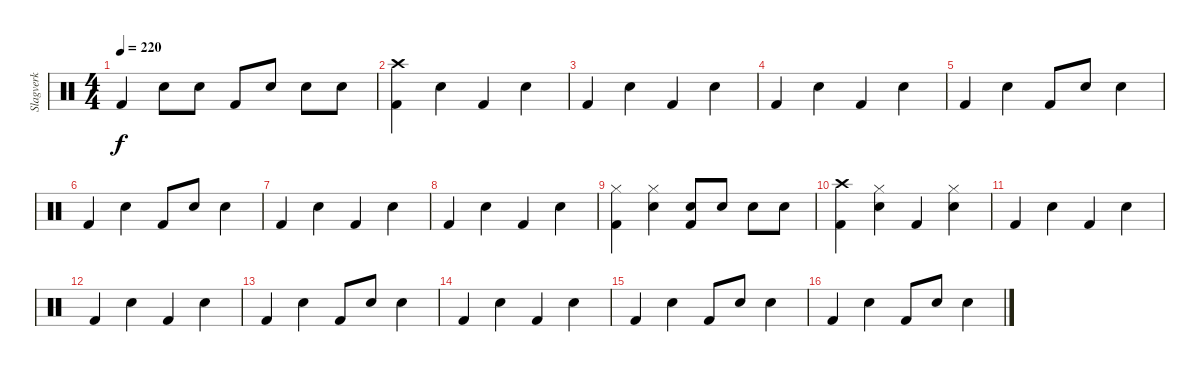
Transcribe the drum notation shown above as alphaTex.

\track ("Slagverk" "Slagverk") {instrument percussion}
\staff {score}
\articulation defaults
\ts (4 4)
\tempo 220
\clef neutral
\ks c "Kick (hit) 2".4{dy f} "Snare (hit) 2".8 "Snare (hit) 2".8 "Kick (hit) 2".8 "Snare (hit) 2".8 "Snare (hit) 2".8 "Snare (hit) 2".8
|
("Crash high (hit)" "Kick (hit) 2").4 "Snare (hit) 2".4 "Kick (hit) 2".4 "Snare (hit) 2".4 |
"Kick (hit) 2".4 "Snare (hit) 2".4 "Kick (hit) 2".4 "Snare (hit) 2".4 |
"Kick (hit) 2".4 "Snare (hit) 2".4 "Kick (hit) 2".4 "Snare (hit) 2".4 |
"Kick (hit) 2".4 "Snare (hit) 2".4 "Kick (hit) 2".8 "Snare (hit) 2".8 "Snare (hit) 2".4 |
"Kick (hit) 2".4 "Snare (hit) 2".4 "Kick (hit) 2".8 "Snare (hit) 2".8 "Snare (hit) 2".4 |
"Kick (hit) 2".4 "Snare (hit) 2".4 "Kick (hit) 2".4 "Snare (hit) 2".4 |
"Kick (hit) 2".4 "Snare (hit) 2".4 "Kick (hit) 2".4 "Snare (hit) 2".4 |
("Hi-Hat (closed)" "Kick (hit) 2").4 ("Hi-Hat (closed)" "Snare (hit) 2").4 ("Snare (hit) 2" "Kick (hit) 2").8 "Snare (hit) 2".8 "Snare (hit) 2".8 "Snare (hit) 2".8 |
("Crash high (hit)" "Kick (hit) 2").4 ("Hi-Hat (closed)" "Snare (hit) 2").4 "Kick (hit) 2".4 ("Hi-Hat (closed)" "Snare (hit) 2").4 |
"Kick (hit) 2".4 "Snare (hit) 2".4 "Kick (hit) 2".4 "Snare (hit) 2".4 |
"Kick (hit) 2".4 "Snare (hit) 2".4 "Kick (hit) 2".4 "Snare (hit) 2".4 |
"Kick (hit) 2".4 "Snare (hit) 2".4 "Kick (hit) 2".8 "Snare (hit) 2".8 "Snare (hit) 2".4 |
"Kick (hit) 2".4 "Snare (hit) 2".4 "Kick (hit) 2".4 "Snare (hit) 2".4 |
"Kick (hit) 2".4 "Snare (hit) 2".4 "Kick (hit) 2".8 "Snare (hit) 2".8 "Snare (hit) 2".4 |
"Kick (hit) 2".4 "Snare (hit) 2".4 "Kick (hit) 2".8 "Snare (hit) 2".8 "Snare (hit) 2".4
